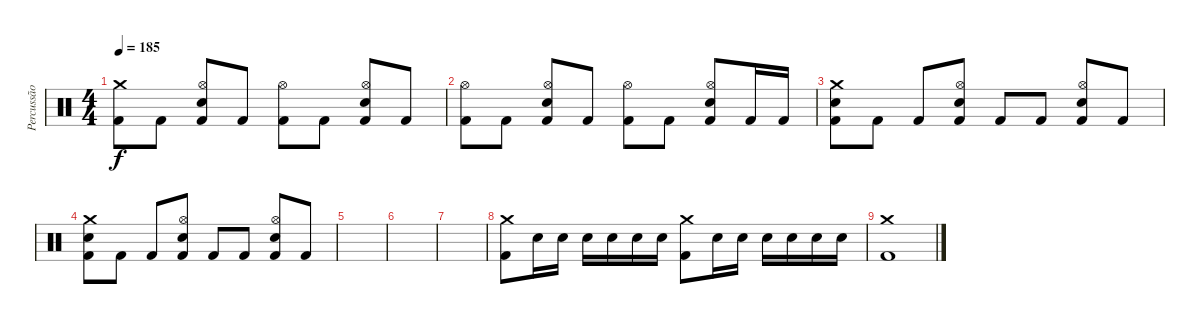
\track ("Percussão" "Percussão") {instrument percussion}
\staff {score}
\articulation defaults
\ts (4 4)
\tempo 185
\clef neutral
\ks c
("Crash medium (hit)" "Kick (hit) 2").8{dy f} "Kick (hit) 2".8 ("Hi-Hat (open)" "Snare (hit) 2" "Kick (hit) 2").8 "Kick (hit) 2".8 ("Hi-Hat (open)" "Kick (hit) 2").8 "Kick (hit) 2".8 ("Hi-Hat (open)" "Snare (hit) 2" "Kick (hit) 2").8 "Kick (hit) 2".8 |
("Hi-Hat (open)" "Kick (hit) 2").8 "Kick (hit) 2".8 ("Hi-Hat (open)" "Snare (hit) 2" "Kick (hit) 2").8 "Kick (hit) 2".8 ("Hi-Hat (open)" "Kick (hit) 2").8 "Kick (hit) 2".8 ("Hi-Hat (open)" "Snare (hit) 2" "Kick (hit) 2").8 "Kick (hit) 2".16 "Kick (hit) 2".16 |
("Crash medium (hit)" "Snare (hit) 2" "Kick (hit) 2").8 "Kick (hit) 2".8 "Kick (hit) 2".8 ("Hi-Hat (open)" "Snare (hit) 2" "Kick (hit) 2").8 "Kick (hit) 2".8 "Kick (hit) 2".8 ("Hi-Hat (open)" "Snare (hit) 2" "Kick (hit) 2").8 "Kick (hit) 2".8 |
("Crash medium (hit)" "Snare (hit) 2" "Kick (hit) 2").8 "Kick (hit) 2".8 "Kick (hit) 2".8 ("Hi-Hat (open)" "Snare (hit) 2" "Kick (hit) 2").8 "Kick (hit) 2".8 "Kick (hit) 2".8 ("Hi-Hat (open)" "Snare (hit) 2" "Kick (hit) 2").8 "Kick (hit) 2".8 |
|
|
|
("Crash medium (hit)" "Kick (hit) 2").8 "Snare (hit) 2".16 "Snare (hit) 2".16 "Snare (hit) 2".16 "Snare (hit) 2".16 "Snare (hit) 2".16 "Snare (hit) 2".16 ("Crash medium (hit)" "Kick (hit) 2").8 "Snare (hit) 2".16 "Snare (hit) 2".16 "Snare (hit) 2".16 "Snare (hit) 2".16 "Snare (hit) 2".16 "Snare (hit) 2".16 |
("Crash medium (hit)" "Kick (hit) 2").1
